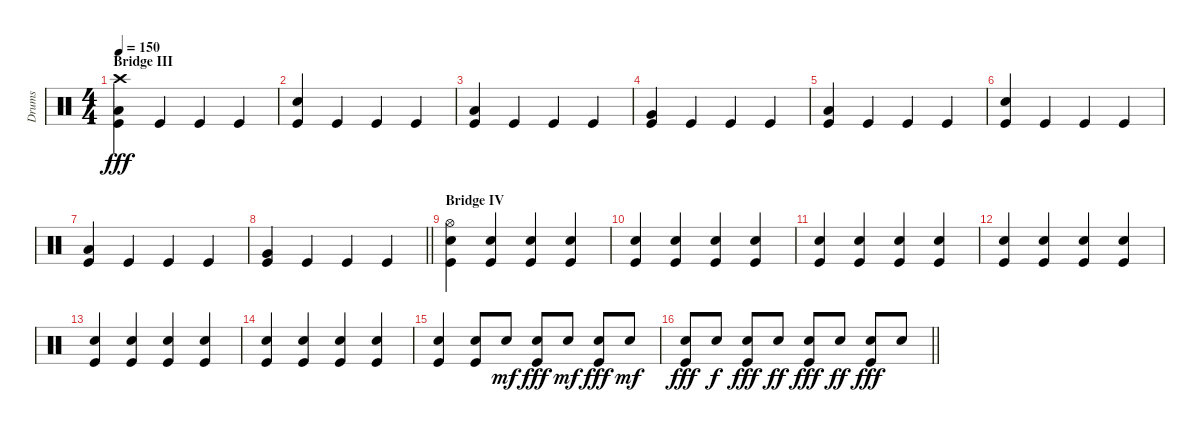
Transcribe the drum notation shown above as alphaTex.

\track ("Drums" "Drums") {instrument percussion}
\staff {score}
\articulation defaults
\ts (4 4)
\section ("" "Bridge III")
\tempo 150
\clef neutral
\ks c
("Crash high (hit)" "Low Tom (hit)" "Kick (hit)").4{dy fff} "Kick (hit)".4 "Kick (hit)".4 "Kick (hit)".4 |
("Snare (hit) 2" "Kick (hit)").4 "Kick (hit)".4 "Kick (hit)".4 "Kick (hit)".4 |
("Low Tom (hit)" "Kick (hit)").4 "Kick (hit)".4 "Kick (hit)".4 "Kick (hit)".4 |
("Very Low Tom (hit)" "Kick (hit)").4 "Kick (hit)".4 "Kick (hit)".4 "Kick (hit)".4 |
("Low Tom (hit)" "Kick (hit)").4 "Kick (hit)".4 "Kick (hit)".4 "Kick (hit)".4 |
("Snare (hit) 2" "Kick (hit)").4 "Kick (hit)".4 "Kick (hit)".4 "Kick (hit)".4 |
("Low Tom (hit)" "Kick (hit)").4 "Kick (hit)".4 "Kick (hit)".4 "Kick (hit)".4 |
\barLineRight lightlight
("Very Low Tom (hit)" "Kick (hit)").4 "Kick (hit)".4 "Kick (hit)".4 "Kick (hit)".4 |
\section ("" "Bridge IV")
("Hi-Hat (open)" "Snare (hit) 2" "Kick (hit)").4 ("Snare (hit) 2" "Kick (hit)").4 ("Snare (hit) 2" "Kick (hit)").4 ("Snare (hit) 2" "Kick (hit)").4 |
("Snare (hit) 2" "Kick (hit)").4 ("Snare (hit) 2" "Kick (hit)").4 ("Snare (hit) 2" "Kick (hit)").4 ("Snare (hit) 2" "Kick (hit)").4 |
("Snare (hit) 2" "Kick (hit)").4 ("Snare (hit) 2" "Kick (hit)").4 ("Snare (hit) 2" "Kick (hit)").4 ("Snare (hit) 2" "Kick (hit)").4 |
("Snare (hit) 2" "Kick (hit)").4 ("Snare (hit) 2" "Kick (hit)").4 ("Snare (hit) 2" "Kick (hit)").4 ("Snare (hit) 2" "Kick (hit)").4 |
("Snare (hit) 2" "Kick (hit)").4 ("Snare (hit) 2" "Kick (hit)").4 ("Snare (hit) 2" "Kick (hit)").4 ("Snare (hit) 2" "Kick (hit)").4 |
("Snare (hit) 2" "Kick (hit)").4 ("Snare (hit) 2" "Kick (hit)").4 ("Snare (hit) 2" "Kick (hit)").4 ("Snare (hit) 2" "Kick (hit)").4 |
("Snare (hit) 2" "Kick (hit)").4 ("Snare (hit) 2" "Kick (hit)").8 "Snare (hit) 2".8{dy mf} ("Snare (hit) 2" "Kick (hit)").8{dy fff} "Snare (hit) 2".8{dy mf} ("Snare (hit) 2" "Kick (hit)").8{dy fff} "Snare (hit) 2".8{dy mf} |
\barLineRight lightlight
("Snare (hit) 2" "Kick (hit)").8{dy fff} "Snare (hit) 2".8{dy f} ("Snare (hit) 2" "Kick (hit)").8{dy fff} "Snare (hit) 2".8{dy ff} ("Snare (hit) 2" "Kick (hit)").8{dy fff} "Snare (hit) 2".8{dy ff} ("Snare (hit) 2" "Kick (hit)").8{dy fff} "Snare (hit) 2".8
